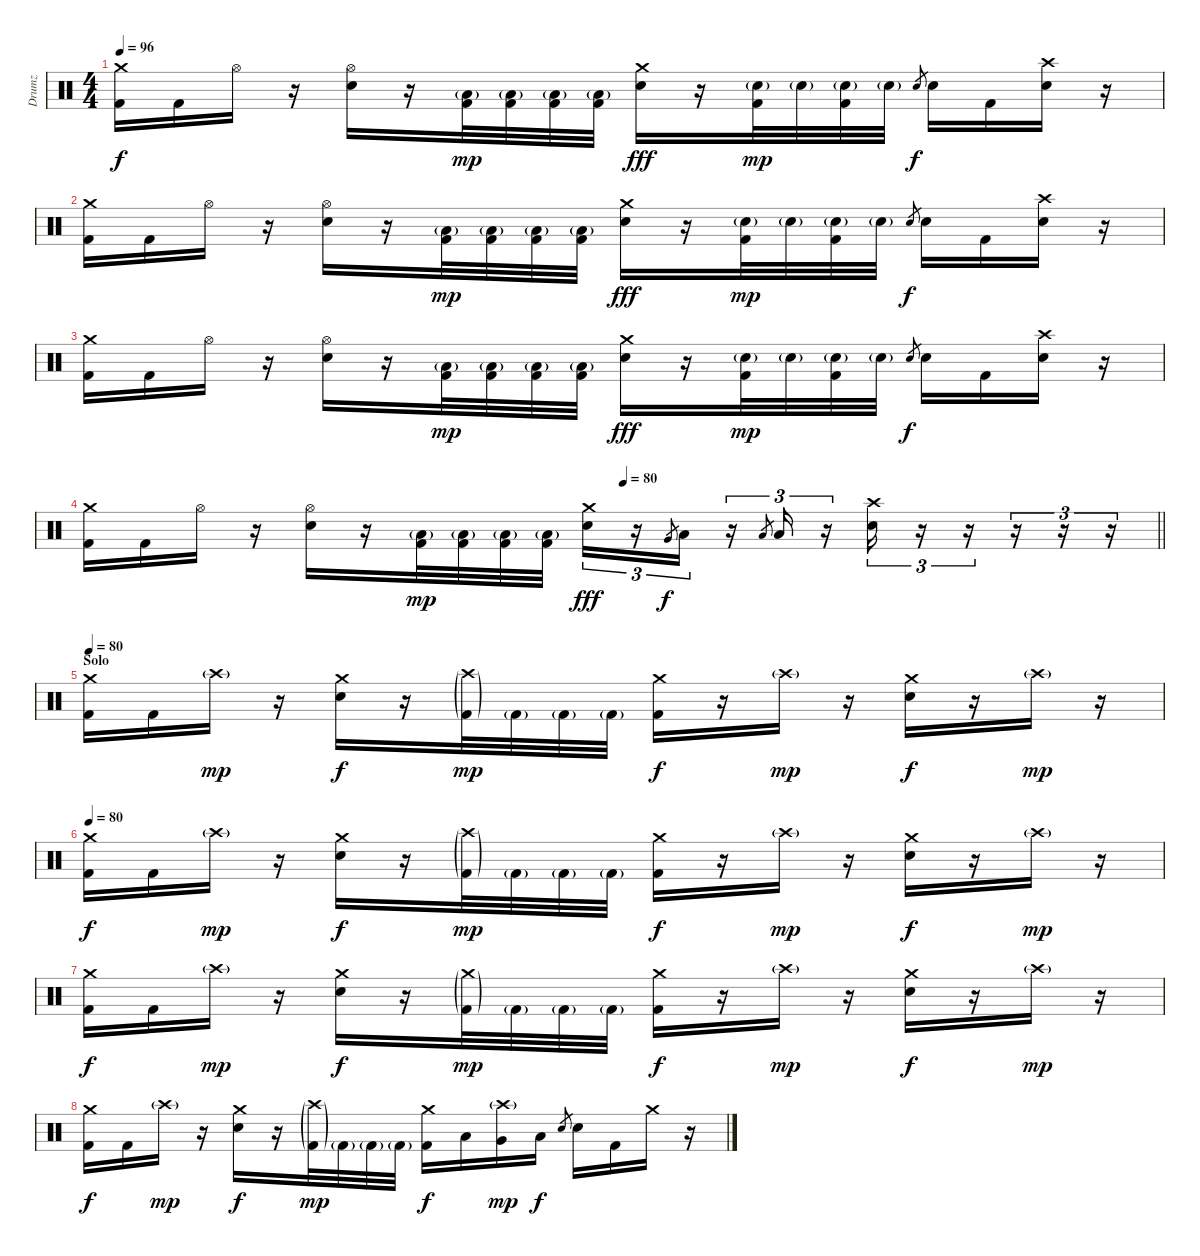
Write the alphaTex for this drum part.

\track ("Drumz" "Drumz") {instrument percussion}
\staff {score}
\articulation defaults
\ts (4 4)
\tempo 96
\clef neutral
\ks c
("Crash medium (hit)" "Kick (hit) 2").16{dy f} "Kick (hit) 2".16 "Hi-Hat (open)".16 r.16 ("Hi-Hat (open)" "Electric Snare (hit)").16 r.16 ("Low Floor Tom (hit)"{g} "Kick (hit) 2").32{dy mp} ("Low Floor Tom (hit)"{g} "Kick (hit) 2").32 ("Low Floor Tom (hit)"{g} "Kick (hit) 2").32 ("Low Floor Tom (hit)"{g} "Kick (hit) 2").32 ("Crash medium (hit)" "Electric Snare (hit)").16{dy fff} r.16 ("Electric Snare (hit)"{g} "Kick (hit) 2").32{dy mp} "Electric Snare (hit)"{g}.32 ("Electric Snare (hit)"{g} "Kick (hit) 2").32 "Electric Snare (hit)"{g}.32 "Electric Snare (hit)".8{gr dy f} "Electric Snare (hit)".16 "Kick (hit) 2".16 ("Crash high (hit)" "Electric Snare (hit)").16 r.16 |
("Crash medium (hit)" "Kick (hit) 2").16 "Kick (hit) 2".16 "Hi-Hat (open)".16 r.16 ("Hi-Hat (open)" "Electric Snare (hit)").16 r.16 ("Low Floor Tom (hit)"{g} "Kick (hit) 2").32{dy mp} ("Low Floor Tom (hit)"{g} "Kick (hit) 2").32 ("Low Floor Tom (hit)"{g} "Kick (hit) 2").32 ("Low Floor Tom (hit)"{g} "Kick (hit) 2").32 ("Crash medium (hit)" "Electric Snare (hit)").16{dy fff} r.16 ("Electric Snare (hit)"{g} "Kick (hit) 2").32{dy mp} "Electric Snare (hit)"{g}.32 ("Electric Snare (hit)"{g} "Kick (hit) 2").32 "Electric Snare (hit)"{g}.32 "Electric Snare (hit)".8{gr dy f} "Electric Snare (hit)".16 "Kick (hit) 2".16 ("Crash high (hit)" "Electric Snare (hit)").16 r.16 |
("Crash medium (hit)" "Kick (hit) 2").16 "Kick (hit) 2".16 "Hi-Hat (open)".16 r.16 ("Hi-Hat (open)" "Electric Snare (hit)").16 r.16 ("Low Floor Tom (hit)"{g} "Kick (hit) 2").32{dy mp} ("Low Floor Tom (hit)"{g} "Kick (hit) 2").32 ("Low Floor Tom (hit)"{g} "Kick (hit) 2").32 ("Low Floor Tom (hit)"{g} "Kick (hit) 2").32 ("Crash medium (hit)" "Electric Snare (hit)").16{dy fff} r.16 ("Electric Snare (hit)"{g} "Kick (hit) 2").32{dy mp} "Electric Snare (hit)"{g}.32 ("Electric Snare (hit)"{g} "Kick (hit) 2").32 "Electric Snare (hit)"{g}.32 "Electric Snare (hit)".8{gr dy f} "Electric Snare (hit)".16 "Kick (hit) 2".16 ("Crash high (hit)" "Electric Snare (hit)").16 r.16 |
\tempo (80 0.5)
\barLineRight lightlight
("Crash medium (hit)" "Kick (hit) 2").16 "Kick (hit) 2".16 "Hi-Hat (open)".16 r.16 ("Hi-Hat (open)" "Electric Snare (hit)").16 r.16 ("Low Floor Tom (hit)"{g} "Kick (hit) 2").32{dy mp} ("Low Floor Tom (hit)"{g} "Kick (hit) 2").32 ("Low Floor Tom (hit)"{g} "Kick (hit) 2").32 ("Low Floor Tom (hit)"{g} "Kick (hit) 2").32 ("Crash medium (hit)" "Electric Snare (hit)").16{tu (3 2) dy fff} r.16{tu (3 2)} "Very Low Tom (hit)".8{gr dy f} "Low Tom (hit)".16{tu (3 2)} r.16{tu (3 2)} "Low Floor Tom (hit)".8{gr} "Low Floor Tom (hit)".16{tu (3 2)} r.16{tu (3 2)} ("Crash high (hit)" "Electric Snare (hit)").16{tu (3 2)} r.16{tu (3 2)} r.16{tu (3 2)} r.16{tu (3 2)} r.16{tu (3 2)} r.16{tu (3 2)} |
\section ("" "Solo")
\tempo 80
("Crash medium (hit)" "Kick (hit) 2").16 "Kick (hit) 2".16 "Crash high (hit)"{g}.16{dy mp} r.16 ("Crash medium (hit)" "Electric Snare (hit)").16{dy f} r.16 ("Crash high (hit)"{g} "Kick (hit) 2"{g}).32{dy mp} "Kick (hit) 2"{g}.32 "Kick (hit) 2"{g}.32 "Kick (hit) 2"{g}.32 ("Crash medium (hit)" "Kick (hit) 2").16{dy f} r.16 "Crash high (hit)"{g}.16{dy mp} r.16 ("Crash medium (hit)" "Electric Snare (hit)").16{dy f} r.16 "Crash high (hit)"{g}.16{dy mp} r.16 |
\tempo 80
("Crash medium (hit)" "Kick (hit) 2").16{dy f} "Kick (hit) 2".16 "Crash high (hit)"{g}.16{dy mp} r.16 ("Crash medium (hit)" "Electric Snare (hit)").16{dy f} r.16 ("Crash high (hit)"{g} "Kick (hit) 2"{g}).32{dy mp} "Kick (hit) 2"{g}.32 "Kick (hit) 2"{g}.32 "Kick (hit) 2"{g}.32 ("Crash medium (hit)" "Kick (hit) 2").16{dy f} r.16 "Crash high (hit)"{g}.16{dy mp} r.16 ("Crash medium (hit)" "Electric Snare (hit)").16{dy f} r.16 "Crash high (hit)"{g}.16{dy mp} r.16 |
("Crash medium (hit)" "Kick (hit) 2").16{dy f} "Kick (hit) 2".16 "Crash high (hit)"{g}.16{dy mp} r.16 ("Crash medium (hit)" "Electric Snare (hit)").16{dy f} r.16 ("Crash medium (hit)"{g} "Kick (hit) 2"{g}).32{dy mp} "Kick (hit) 2"{g}.32 "Kick (hit) 2"{g}.32 "Kick (hit) 2"{g}.32 ("Crash medium (hit)" "Kick (hit) 2").16{dy f} r.16 "Crash high (hit)"{g}.16{dy mp} r.16 ("Crash medium (hit)" "Electric Snare (hit)").16{dy f} r.16 "Crash high (hit)"{g}.16{dy mp} r.16 |
("Crash medium (hit)" "Kick (hit) 2").16{dy f} "Kick (hit) 2".16 "Crash high (hit)"{g}.16{dy mp} r.16 ("Crash medium (hit)" "Electric Snare (hit)").16{dy f} r.16 ("Crash high (hit)"{g} "Kick (hit) 2"{g}).32{dy mp} "Kick (hit) 2"{g}.32 "Kick (hit) 2"{g}.32 "Kick (hit) 2"{g}.32 ("Crash medium (hit)" "Kick (hit) 2").16{dy f} "Low Floor Tom (hit)".16 ("Crash high (hit)"{g} "Very Low Tom (hit)").16{dy mp} "Low Floor Tom (hit)".16{dy f} "Electric Snare (hit)".8{gr} "Electric Snare (hit)".16 "Kick (hit) 2".16 "Crash medium (hit)".16 r.16
